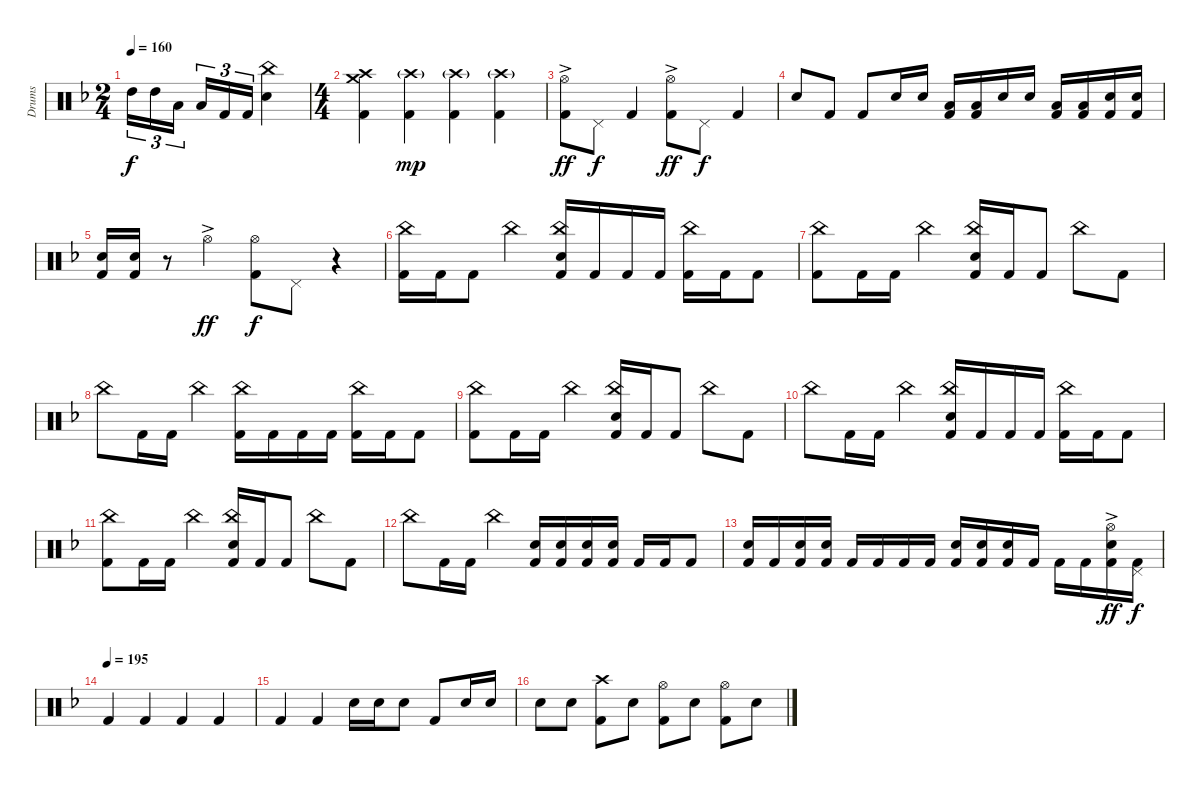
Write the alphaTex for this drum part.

\track ("Drums" "Drums") {instrument percussion}
\staff {score}
\articulation defaults
\ts (2 4)
\tempo 160
\clef neutral
\ks f "High Tom (hit)".16{tu (3 2) dy f} "High Tom (hit)".16{tu (3 2)} "Low Tom (hit)".16{tu (3 2) beam splitsecondary} "Low Tom (hit)".16{tu (3 2)} "Kick (hit) 2".16{tu (3 2)} "Kick (hit) 2".16{tu (3 2)}
("China (hit)" "Electric Snare (hit)").4 |
\ts (4 4)
("Crash high (hit)" "Crash medium (hit)" "Kick (hit) 2").4 ("Crash high (hit)"{g} "Kick (hit) 2").4{dy mp} ("Crash high (hit)"{g} "Kick (hit) 2").4 ("Crash high (hit)"{g} "Kick (hit) 2").4 |
("Hi-Hat (open)"{ac} "Kick (hit) 2").8{dy ff} "Pedal Hi-Hat (hit)".8{dy f} "Kick (hit) 2".4 ("Hi-Hat (open)"{ac} "Kick (hit) 2").8{dy ff} "Pedal Hi-Hat (hit)".8{dy f} "Kick (hit) 2".4 |
"Electric Snare (hit)".8 "Kick (hit) 2".8 "Kick (hit) 2".8 "Electric Snare (hit)".16 "Electric Snare (hit)".16 ("Low Tom (hit)" "Kick (hit) 2").16 ("Low Tom (hit)" "Kick (hit) 2").16 "Electric Snare (hit)".16 "Electric Snare (hit)".16 ("Low Tom (hit)" "Kick (hit) 2").16 ("Low Tom (hit)" "Kick (hit) 2").16 ("Electric Snare (hit)" "Kick (hit) 2").16 ("Electric Snare (hit)" "Kick (hit) 2").16 |
("Electric Snare (hit)" "Kick (hit) 2").16 ("Electric Snare (hit)" "Kick (hit) 2").16 r.8 "Hi-Hat (open)"{ac}.4{dy ff} ("Hi-Hat (open)" "Kick (hit) 2").8{dy f} "Pedal Hi-Hat (hit)".8 r.4 |
("China (hit)" "Kick (hit) 2").16 "Kick (hit) 2".16 "Kick (hit) 2".8 "China (hit)".4 ("China (hit)" "Electric Snare (hit)" "Kick (hit) 2").16 "Kick (hit) 2".16 "Kick (hit) 2".16 "Kick (hit) 2".16 ("China (hit)" "Kick (hit) 2").16 "Kick (hit) 2".16 "Kick (hit) 2".8 |
("China (hit)" "Kick (hit) 2").8 "Kick (hit) 2".16 "Kick (hit) 2".16 "China (hit)".4 ("China (hit)" "Electric Snare (hit)" "Kick (hit) 2").16 "Kick (hit) 2".16 "Kick (hit) 2".8 "China (hit)".8 "Kick (hit) 2".8 |
"China (hit)".8 "Kick (hit) 2".16 "Kick (hit) 2".16 "China (hit)".4 ("China (hit)" "Kick (hit) 2").16 "Kick (hit) 2".16 "Kick (hit) 2".16 "Kick (hit) 2".16 ("China (hit)" "Kick (hit) 2").16 "Kick (hit) 2".16 "Kick (hit) 2".8 |
("China (hit)" "Kick (hit) 2").8 "Kick (hit) 2".16 "Kick (hit) 2".16 "China (hit)".4 ("China (hit)" "Electric Snare (hit)" "Kick (hit) 2").16 "Kick (hit) 2".16 "Kick (hit) 2".8 "China (hit)".8 "Kick (hit) 2".8 |
"China (hit)".8 "Kick (hit) 2".16 "Kick (hit) 2".16 "China (hit)".4 ("China (hit)" "Electric Snare (hit)" "Kick (hit) 2").16 "Kick (hit) 2".16 "Kick (hit) 2".16 "Kick (hit) 2".16 ("China (hit)" "Kick (hit) 2").16 "Kick (hit) 2".16 "Kick (hit) 2".8 |
("China (hit)" "Kick (hit) 2").8 "Kick (hit) 2".16 "Kick (hit) 2".16 "China (hit)".4 ("China (hit)" "Electric Snare (hit)" "Kick (hit) 2").16 "Kick (hit) 2".16 "Kick (hit) 2".8 "China (hit)".8 "Kick (hit) 2".8 |
"China (hit)".8 "Kick (hit) 2".16 "Kick (hit) 2".16 "China (hit)".4 ("Electric Snare (hit)" "Kick (hit) 2").16 ("Electric Snare (hit)" "Kick (hit) 2").16 ("Electric Snare (hit)" "Kick (hit) 2").16 ("Electric Snare (hit)" "Kick (hit) 2").16 "Kick (hit) 2".16 "Kick (hit) 2".16 "Kick (hit) 2".8 |
("Electric Snare (hit)" "Kick (hit) 2").16 "Kick (hit) 2".16 ("Electric Snare (hit)" "Kick (hit) 2").16 ("Electric Snare (hit)" "Kick (hit) 2").16 "Kick (hit) 2".16 "Kick (hit) 2".16 "Kick (hit) 2".16 "Kick (hit) 2".16 ("Electric Snare (hit)" "Kick (hit) 2").16 ("Electric Snare (hit)" "Kick (hit) 2").16 ("Electric Snare (hit)" "Kick (hit) 2").16 "Kick (hit) 2".16 "Kick (hit) 2".16 "Kick (hit) 2".16 ("Hi-Hat (open)"{ac} "Electric Snare (hit)" "Kick (hit) 2").16{dy ff} ("Pedal Hi-Hat (hit)" "Kick (hit) 2").16{dy f} |
\tempo (195)
"Kick (hit) 2".4 "Kick (hit) 2".4 "Kick (hit) 2".4 "Kick (hit) 2".4 |
"Kick (hit) 2".4 "Kick (hit) 2".4 "Electric Snare (hit)".16 "Electric Snare (hit)".16 "Electric Snare (hit)".8 "Kick (hit) 2".8 "Electric Snare (hit)".16 "Electric Snare (hit)".16 |
"Electric Snare (hit)".8 "Electric Snare (hit)".8 ("Crash high (hit)" "Kick (hit) 2").8 "Electric Snare (hit)".8 ("Hi-Hat (open)" "Kick (hit) 2").8 "Electric Snare (hit)".8 ("Hi-Hat (open)" "Kick (hit) 2").8 "Electric Snare (hit)".8
